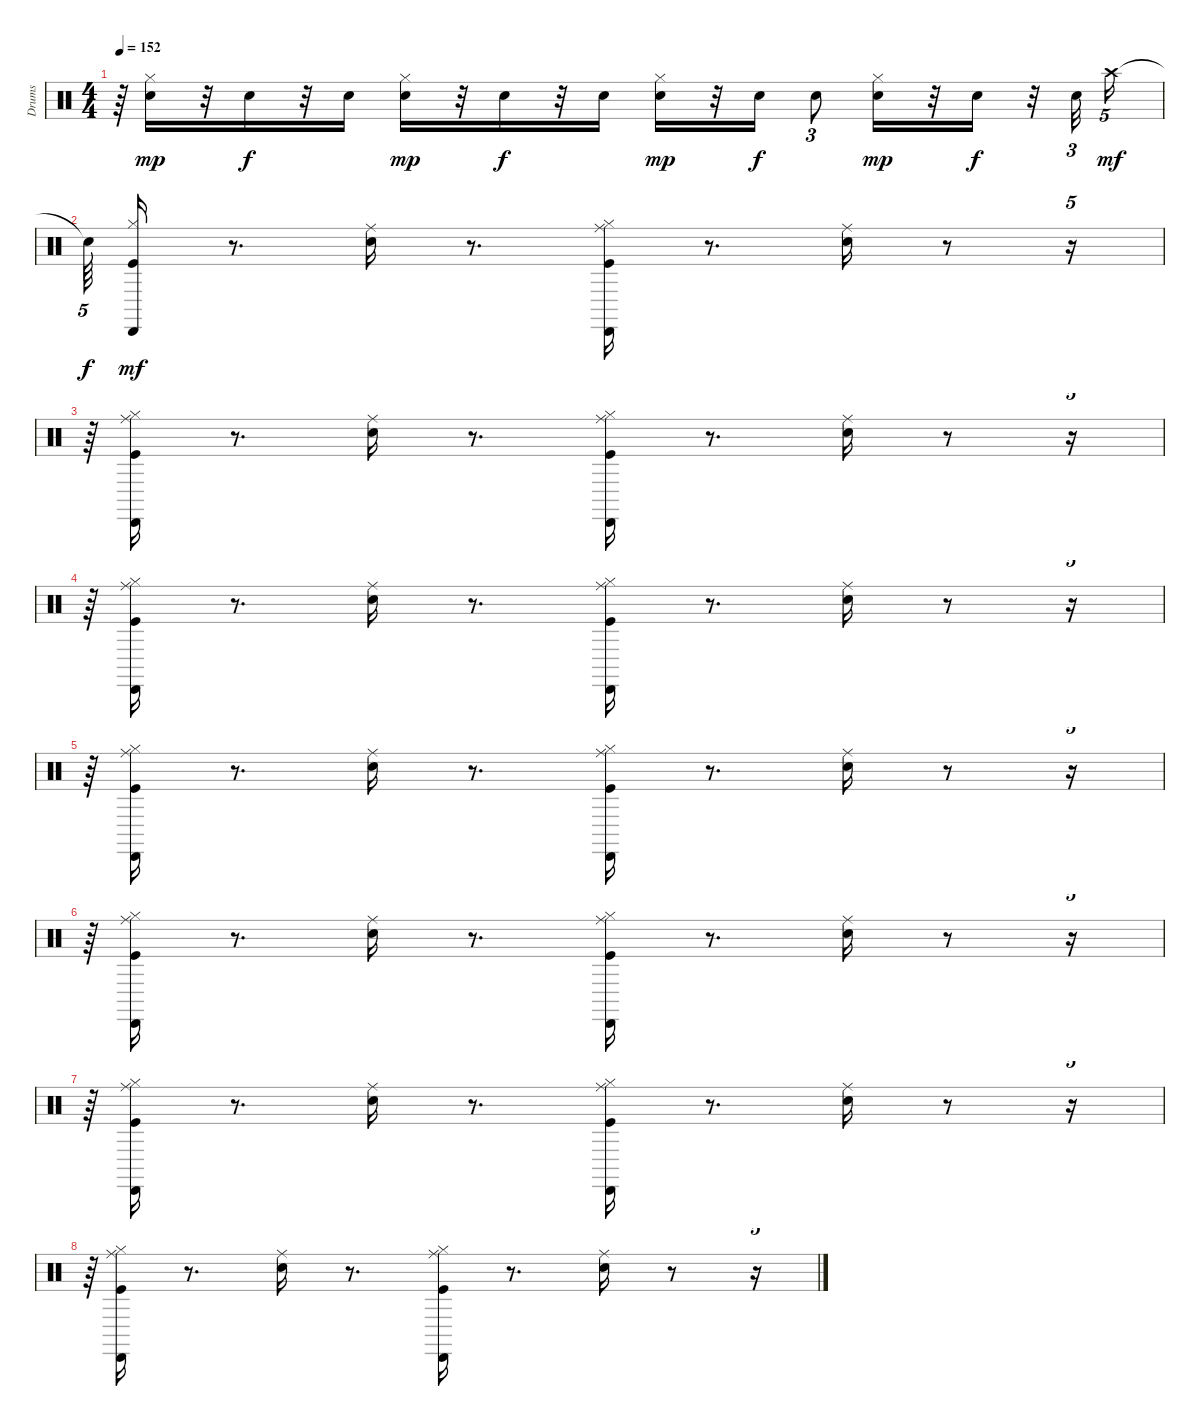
\track ("Drums" "Drums") {instrument percussion}
\staff {score}
\articulation defaults
\ts (4 4)
\tempo 152
\clef neutral
\ks c
r.64{dy mp} ("Hi-Hat (closed)" "Snare (hit) 2").16 r.32 "Snare (hit) 2".16{dy f} r.32 "Snare (hit) 2".16 ("Snare (hit) 2" "Hi-Hat (closed)").16{dy mp} r.32 "Snare (hit) 2".16{dy f} r.32 "Snare (hit) 2".16 ("Snare (hit) 2" "Hi-Hat (closed)").16{dy mp} r.32 "Snare (hit) 2".16{dy f} "Snare (hit) 2".8{tu (3 2)} ("Snare (hit) 2" "Hi-Hat (closed)").16{dy mp} r.32 "Snare (hit) 2".16{dy f} r.32 "Snare (hit) 2".32{tu (3 2)} "Crash high (hit)".16{tu (5 4) dy mf} |
"Snare (hit)"{t}.64{tu (5 4) dy f} ("Kick (hit)" "Hi-Hat (closed)" "Cabasa (hit)").16{dy mf} r.8{d} ("Ride (middle)" "Snare (hit) 2").16 r.8{d} ("Kick (hit)" "Hi-Hat (closed)" "Ride (middle)" "Cabasa (hit)").16 r.8{d} ("Ride (middle)" "Snare (hit) 2").16 r.8 r.16{tu (5 4)} |
r.64{tu (5 4)} ("Kick (hit)" "Hi-Hat (closed)" "Ride (middle)" "Cabasa (hit)").16 r.8{d} ("Snare (hit) 2" "Ride (middle)").16 r.8{d} ("Kick (hit)" "Hi-Hat (closed)" "Ride (middle)" "Cabasa (hit)").16 r.8{d} ("Snare (hit) 2" "Ride (middle)").16 r.8 r.16{tu (5 4)} |
r.64{tu (5 4)} ("Kick (hit)" "Hi-Hat (closed)" "Ride (middle)" "Cabasa (hit)").16 r.8{d} ("Snare (hit) 2" "Ride (middle)").16 r.8{d} ("Kick (hit)" "Hi-Hat (closed)" "Ride (middle)" "Cabasa (hit)").16 r.8{d} ("Ride (middle)" "Snare (hit) 2").16 r.8 r.16{tu (5 4)} |
r.64{tu (5 4)} ("Kick (hit)" "Hi-Hat (closed)" "Ride (middle)" "Cabasa (hit)").16 r.8{d} ("Snare (hit) 2" "Ride (middle)").16 r.8{d} ("Kick (hit)" "Hi-Hat (closed)" "Ride (middle)" "Cabasa (hit)").16 r.8{d} ("Ride (middle)" "Snare (hit) 2").16 r.8 r.16{tu (5 4)} |
r.64{tu (5 4)} ("Kick (hit)" "Hi-Hat (closed)" "Ride (middle)" "Cabasa (hit)").16 r.8{d} ("Snare (hit) 2" "Ride (middle)").16 r.8{d} ("Kick (hit)" "Hi-Hat (closed)" "Ride (middle)" "Cabasa (hit)").16 r.8{d} ("Ride (middle)" "Snare (hit) 2").16 r.8 r.16{tu (5 4)} |
r.64{tu (5 4)} ("Kick (hit)" "Hi-Hat (closed)" "Ride (middle)" "Cabasa (hit)").16 r.8{d} ("Snare (hit) 2" "Ride (middle)").16 r.8{d} ("Kick (hit)" "Hi-Hat (closed)" "Ride (middle)" "Cabasa (hit)").16 r.8{d} ("Ride (middle)" "Snare (hit) 2").16 r.8 r.16{tu (5 4)} |
r.64{tu (5 4)} ("Kick (hit)" "Hi-Hat (closed)" "Ride (middle)" "Cabasa (hit)").16 r.8{d} ("Ride (middle)" "Snare (hit) 2").16 r.8{d} ("Kick (hit)" "Hi-Hat (closed)" "Ride (middle)" "Cabasa (hit)").16 r.8{d} ("Ride (middle)" "Snare (hit) 2").16 r.8 r.16{tu (5 4)}
